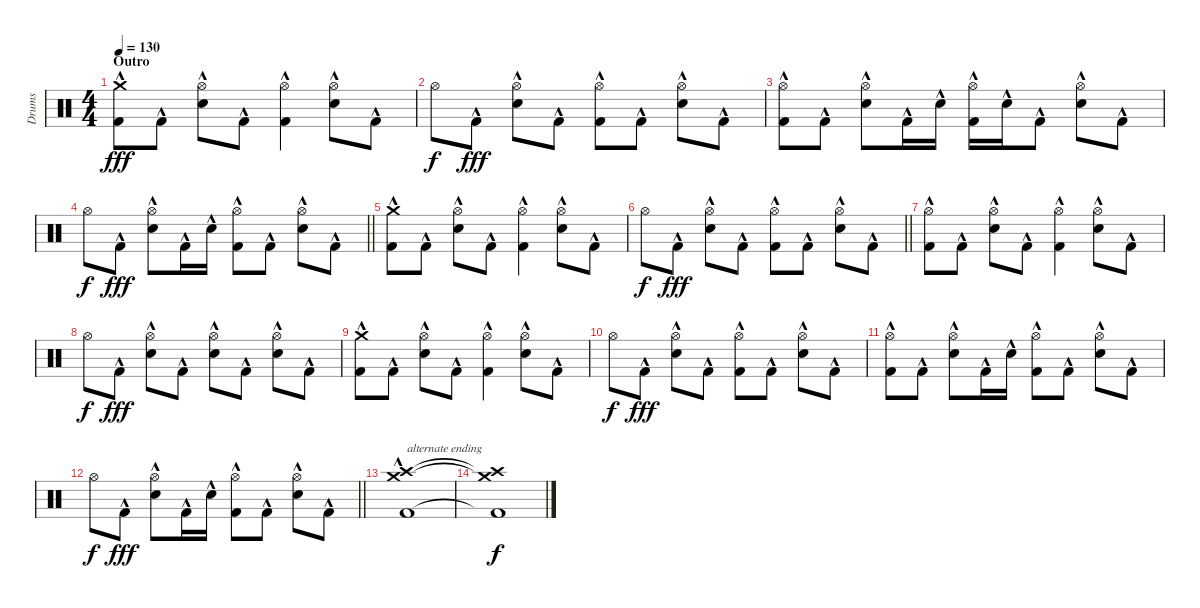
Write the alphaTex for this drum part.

\track ("Drums" "Drums") {instrument percussion}
\staff {score}
\articulation defaults
\ts (4 4)
\section ("" "Outro")
\tempo 130
\clef neutral
\ks c
("Crash medium (hit)" "Kick (hit) 2"{hac}).8{dy fff} "Kick (hit) 2"{hac}.8 ("Hi-Hat (open)" "Electric Snare (hit)"{hac}).8 "Kick (hit) 2"{hac}.8 ("Hi-Hat (open)" "Kick (hit) 2"{hac}).4 ("Hi-Hat (open)" "Electric Snare (hit)"{hac}).8 "Kick (hit) 2"{hac}.8 |
"Hi-Hat (open)".8{dy f} "Kick (hit) 2"{hac}.8{dy fff} ("Hi-Hat (open)" "Electric Snare (hit)"{hac}).8 "Kick (hit) 2"{hac}.8 ("Hi-Hat (open)" "Kick (hit) 2"{hac}).8 "Kick (hit) 2"{hac}.8 ("Hi-Hat (open)" "Electric Snare (hit)"{hac}).8 "Kick (hit) 2"{hac}.8 |
("Hi-Hat (open)" "Kick (hit) 2"{hac}).8 "Kick (hit) 2"{hac}.8 ("Hi-Hat (open)" "Electric Snare (hit)"{hac}).8 "Kick (hit) 2"{hac}.16 "Electric Snare (hit)"{hac}.16 ("Hi-Hat (open)" "Kick (hit) 2"{hac}).16 "Electric Snare (hit)"{hac}.16 "Kick (hit) 2"{hac}.8 ("Hi-Hat (open)" "Electric Snare (hit)"{hac}).8 "Kick (hit) 2"{hac}.8 |
\barLineRight lightlight "Hi-Hat (open)".8{dy f} "Kick (hit) 2"{hac}.8{dy fff}
("Hi-Hat (open)" "Electric Snare (hit)"{hac}).8 "Kick (hit) 2"{hac}.16 "Electric Snare (hit)"{hac}.16 ("Hi-Hat (open)" "Kick (hit) 2"{hac}).8 "Kick (hit) 2"{hac}.8 ("Hi-Hat (open)" "Electric Snare (hit)"{hac}).8 "Kick (hit) 2"{hac}.8 |
("Crash medium (hit)" "Kick (hit) 2"{hac}).8 "Kick (hit) 2"{hac}.8 ("Hi-Hat (open)" "Electric Snare (hit)"{hac}).8 "Kick (hit) 2"{hac}.8 ("Hi-Hat (open)" "Kick (hit) 2"{hac}).4 ("Hi-Hat (open)" "Electric Snare (hit)"{hac}).8 "Kick (hit) 2"{hac}.8 |
\barLineRight lightlight "Hi-Hat (open)".8{dy f} "Kick (hit) 2"{hac}.8{dy fff}
("Hi-Hat (open)" "Electric Snare (hit)"{hac}).8 "Kick (hit) 2"{hac}.8 ("Hi-Hat (open)" "Kick (hit) 2"{hac}).8 "Kick (hit) 2"{hac}.8 ("Hi-Hat (open)" "Electric Snare (hit)"{hac}).8 "Kick (hit) 2"{hac}.8 |
("Hi-Hat (open)" "Kick (hit) 2"{hac}).8 "Kick (hit) 2"{hac}.8 ("Hi-Hat (open)" "Electric Snare (hit)"{hac}).8 "Kick (hit) 2"{hac}.8 ("Hi-Hat (open)" "Kick (hit) 2"{hac}).4 ("Hi-Hat (open)" "Electric Snare (hit)"{hac}).8 "Kick (hit) 2"{hac}.8 |
"Hi-Hat (open)".8{dy f} "Kick (hit) 2"{hac}.8{dy fff} ("Hi-Hat (open)" "Electric Snare (hit)"{hac}).8 "Kick (hit) 2"{hac}.8 ("Hi-Hat (open)" "Electric Snare (hit)"{hac}).8 "Kick (hit) 2"{hac}.8 ("Hi-Hat (open)" "Electric Snare (hit)"{hac}).8 "Kick (hit) 2"{hac}.8 |
("Crash medium (hit)" "Kick (hit) 2"{hac}).8 "Kick (hit) 2"{hac}.8 ("Hi-Hat (open)" "Electric Snare (hit)"{hac}).8 "Kick (hit) 2"{hac}.8 ("Hi-Hat (open)" "Kick (hit) 2"{hac}).4 ("Hi-Hat (open)" "Electric Snare (hit)"{hac}).8 "Kick (hit) 2"{hac}.8 |
"Hi-Hat (open)".8{dy f} "Kick (hit) 2"{hac}.8{dy fff} ("Hi-Hat (open)" "Electric Snare (hit)"{hac}).8 "Kick (hit) 2"{hac}.8 ("Hi-Hat (open)" "Kick (hit) 2"{hac}).8 "Kick (hit) 2"{hac}.8 ("Hi-Hat (open)" "Electric Snare (hit)"{hac}).8 "Kick (hit) 2"{hac}.8 |
("Hi-Hat (open)" "Kick (hit) 2"{hac}).8 "Kick (hit) 2"{hac}.8 ("Hi-Hat (open)" "Electric Snare (hit)"{hac}).8 "Kick (hit) 2"{hac}.16 "Electric Snare (hit)"{hac}.16 ("Hi-Hat (open)" "Kick (hit) 2"{hac}).8 "Kick (hit) 2"{hac}.8 ("Hi-Hat (open)" "Electric Snare (hit)"{hac}).8 "Kick (hit) 2"{hac}.8 |
\barLineRight lightlight "Hi-Hat (open)".8{dy f} "Kick (hit) 2"{hac}.8{dy fff}
("Hi-Hat (open)" "Electric Snare (hit)"{hac}).8 "Kick (hit) 2"{hac}.16 "Electric Snare (hit)"{hac}.16 ("Hi-Hat (open)" "Kick (hit) 2"{hac}).8 "Kick (hit) 2"{hac}.8 ("Hi-Hat (open)" "Electric Snare (hit)"{hac}).8 "Kick (hit) 2"{hac}.8 |
("Crash high (hit)" "Crash medium (hit)" "Kick (hit) 2"{hac}).1{txt "alternate ending"} |
("Crash high (hit)"{t} "Crash medium (hit)"{t} "Kick (hit) 2"{t}).1{dy f}
